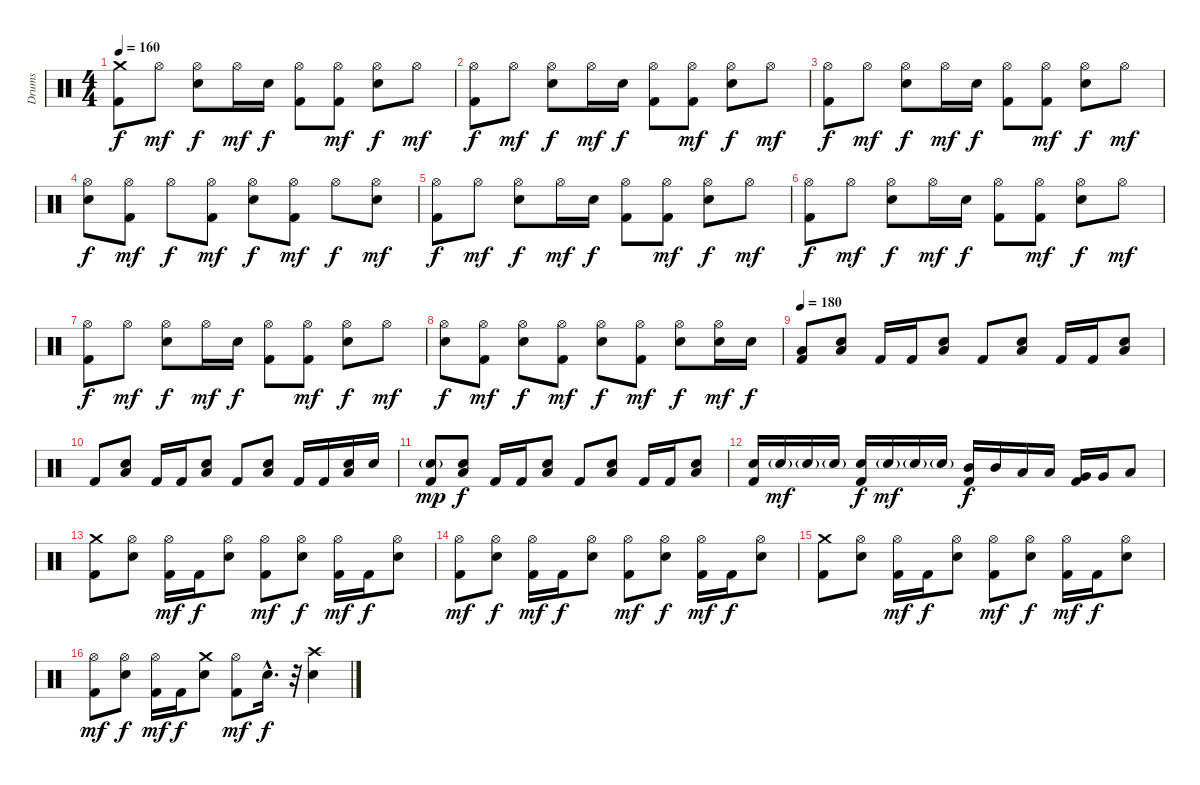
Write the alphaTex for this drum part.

\track ("Drums" "Drums") {instrument percussion}
\staff {score}
\articulation defaults
\ts (4 4)
\tempo 160
\clef neutral
\ks c
("Crash medium (hit)" "Kick (hit) 2").8{dy f} "Hi-Hat (open)".8{dy mf} ("Hi-Hat (open)" "Electric Snare (hit)").8{dy f} "Hi-Hat (open)".16{dy mf} "Electric Snare (hit)".16{dy f} ("Hi-Hat (open)" "Kick (hit) 2").8 ("Hi-Hat (open)" "Kick (hit) 2").8{dy mf} ("Hi-Hat (open)" "Electric Snare (hit)").8{dy f} "Hi-Hat (open)".8{dy mf} |
("Hi-Hat (open)" "Kick (hit) 2").8{dy f} "Hi-Hat (open)".8{dy mf} ("Hi-Hat (open)" "Electric Snare (hit)").8{dy f} "Hi-Hat (open)".16{dy mf} "Electric Snare (hit)".16{dy f} ("Hi-Hat (open)" "Kick (hit) 2").8 ("Hi-Hat (open)" "Kick (hit) 2").8{dy mf} ("Hi-Hat (open)" "Electric Snare (hit)").8{dy f} "Hi-Hat (open)".8{dy mf} |
("Hi-Hat (open)" "Kick (hit) 2").8{dy f} "Hi-Hat (open)".8{dy mf} ("Hi-Hat (open)" "Electric Snare (hit)").8{dy f} "Hi-Hat (open)".16{dy mf} "Electric Snare (hit)".16{dy f} ("Hi-Hat (open)" "Kick (hit) 2").8 ("Hi-Hat (open)" "Kick (hit) 2").8{dy mf} ("Hi-Hat (open)" "Electric Snare (hit)").8{dy f} "Hi-Hat (open)".8{dy mf} |
("Hi-Hat (open)" "Electric Snare (hit)").8{dy f} ("Hi-Hat (open)" "Kick (hit) 2").8{dy mf} "Hi-Hat (open)".8{dy f} ("Hi-Hat (open)" "Kick (hit) 2").8{dy mf} ("Hi-Hat (open)" "Electric Snare (hit)").8{dy f} ("Hi-Hat (open)" "Kick (hit) 2").8{dy mf} "Hi-Hat (open)".8{dy f} ("Hi-Hat (open)" "Electric Snare (hit)").8{dy mf} |
("Hi-Hat (open)" "Kick (hit) 2").8{dy f} "Hi-Hat (open)".8{dy mf} ("Hi-Hat (open)" "Electric Snare (hit)").8{dy f} "Hi-Hat (open)".16{dy mf} "Electric Snare (hit)".16{dy f} ("Hi-Hat (open)" "Kick (hit) 2").8 ("Hi-Hat (open)" "Kick (hit) 2").8{dy mf} ("Hi-Hat (open)" "Electric Snare (hit)").8{dy f} "Hi-Hat (open)".8{dy mf} |
("Hi-Hat (open)" "Kick (hit) 2").8{dy f} "Hi-Hat (open)".8{dy mf} ("Hi-Hat (open)" "Electric Snare (hit)").8{dy f} "Hi-Hat (open)".16{dy mf} "Electric Snare (hit)".16{dy f} ("Hi-Hat (open)" "Kick (hit) 2").8 ("Hi-Hat (open)" "Kick (hit) 2").8{dy mf} ("Hi-Hat (open)" "Electric Snare (hit)").8{dy f} "Hi-Hat (open)".8{dy mf} |
("Hi-Hat (open)" "Kick (hit) 2").8{dy f} "Hi-Hat (open)".8{dy mf} ("Hi-Hat (open)" "Electric Snare (hit)").8{dy f} "Hi-Hat (open)".16{dy mf} "Electric Snare (hit)".16{dy f} ("Hi-Hat (open)" "Kick (hit) 2").8 ("Hi-Hat (open)" "Kick (hit) 2").8{dy mf} ("Hi-Hat (open)" "Electric Snare (hit)").8{dy f} "Hi-Hat (open)".8{dy mf} |
("Hi-Hat (open)" "Electric Snare (hit)").8{dy f} ("Hi-Hat (open)" "Kick (hit) 2").8{dy mf} ("Hi-Hat (open)" "Electric Snare (hit)").8{dy f} ("Hi-Hat (open)" "Kick (hit) 2").8{dy mf} ("Hi-Hat (open)" "Electric Snare (hit)").8{dy f} ("Hi-Hat (open)" "Kick (hit) 2").8{dy mf} ("Hi-Hat (open)" "Electric Snare (hit)").8{dy f} ("Hi-Hat (open)" "Electric Snare (hit)").16{dy mf} "Electric Snare (hit)".16{dy f} |
\tempo 180
("Low Tom (hit)" "Kick (hit) 2").8 ("Low Tom (hit)" "Electric Snare (hit)").8 "Kick (hit) 2".16 "Kick (hit) 2".16 ("Low Tom (hit)" "Electric Snare (hit)").8 "Kick (hit) 2".8 ("Low Tom (hit)" "Electric Snare (hit)").8 "Kick (hit) 2".16 "Kick (hit) 2".16 ("Low Tom (hit)" "Electric Snare (hit)").8 |
"Kick (hit) 2".8 ("Low Tom (hit)" "Electric Snare (hit)").8 "Kick (hit) 2".16 "Kick (hit) 2".16 ("Low Tom (hit)" "Electric Snare (hit)").8 "Kick (hit) 2".8 ("Low Tom (hit)" "Electric Snare (hit)").8 "Kick (hit) 2".16 "Kick (hit) 2".16 ("Low Tom (hit)" "Electric Snare (hit)").16 "Electric Snare (hit)".16 |
("Electric Snare (hit)"{g} "Kick (hit) 2").8{dy mp} ("Low Tom (hit)" "Electric Snare (hit)").8{dy f} "Kick (hit) 2".16 "Kick (hit) 2".16 ("Low Tom (hit)" "Electric Snare (hit)").8 "Kick (hit) 2".8 ("Low Tom (hit)" "Electric Snare (hit)").8 "Kick (hit) 2".16 "Kick (hit) 2".16 ("Low Tom (hit)" "Electric Snare (hit)").8 |
("Electric Snare (hit)" "Kick (hit) 2").16 "Electric Snare (hit)"{g}.16{dy mf} "Electric Snare (hit)"{g}.16 "Electric Snare (hit)"{g}.16 ("Electric Snare (hit)" "Kick (hit) 2").16{dy f} "Electric Snare (hit)"{g}.16{dy mf} "Electric Snare (hit)"{g}.16 "Electric Snare (hit)"{g}.16 ("Mid Tom (hit)" "Kick (hit) 2").16{dy f} "Mid Tom (hit)".16 "Low Tom (hit)".16 "Low Tom (hit)".16 ("Very Low Tom (hit)" "Kick (hit) 2").16 "Very Low Tom (hit)".16 "Low Floor Tom (hit)".8 |
("Crash medium (hit)" "Kick (hit) 2").8 ("Hi-Hat (open)" "Electric Snare (hit)").8 ("Hi-Hat (open)" "Kick (hit) 2").16{dy mf} "Kick (hit) 2".16{dy f} ("Hi-Hat (open)" "Electric Snare (hit)").8 ("Hi-Hat (open)" "Kick (hit) 2").8{dy mf} ("Hi-Hat (open)" "Electric Snare (hit)").8{dy f} ("Hi-Hat (open)" "Kick (hit) 2").16{dy mf} "Kick (hit) 2".16{dy f} ("Hi-Hat (open)" "Electric Snare (hit)").8 |
("Hi-Hat (open)" "Kick (hit) 2").8{dy mf} ("Hi-Hat (open)" "Electric Snare (hit)").8{dy f} ("Hi-Hat (open)" "Kick (hit) 2").16{dy mf} "Kick (hit) 2".16{dy f} ("Hi-Hat (open)" "Electric Snare (hit)").8 ("Hi-Hat (open)" "Kick (hit) 2").8{dy mf} ("Hi-Hat (open)" "Electric Snare (hit)").8{dy f} ("Hi-Hat (open)" "Kick (hit) 2").16{dy mf} "Kick (hit) 2".16{dy f} ("Hi-Hat (open)" "Electric Snare (hit)").8 |
("Crash medium (hit)" "Kick (hit) 2").8 ("Hi-Hat (open)" "Electric Snare (hit)").8 ("Hi-Hat (open)" "Kick (hit) 2").16{dy mf} "Kick (hit) 2".16{dy f} ("Hi-Hat (open)" "Electric Snare (hit)").8 ("Hi-Hat (open)" "Kick (hit) 2").8{dy mf} ("Hi-Hat (open)" "Electric Snare (hit)").8{dy f} ("Hi-Hat (open)" "Kick (hit) 2").16{dy mf} "Kick (hit) 2".16{dy f} ("Hi-Hat (open)" "Electric Snare (hit)").8 |
("Hi-Hat (open)" "Kick (hit) 2").8{dy mf} ("Hi-Hat (open)" "Electric Snare (hit)").8{dy f} ("Hi-Hat (open)" "Kick (hit) 2").16{dy mf} "Kick (hit) 2".16{dy f} ("Crash medium (hit)" "Electric Snare (hit)").8 ("Hi-Hat (open)" "Kick (hit) 2").8{dy mf} "Electric Snare (hit)"{hac}.16{d dy f} r.32 ("Crash high (hit)" "Electric Snare (hit)").4
